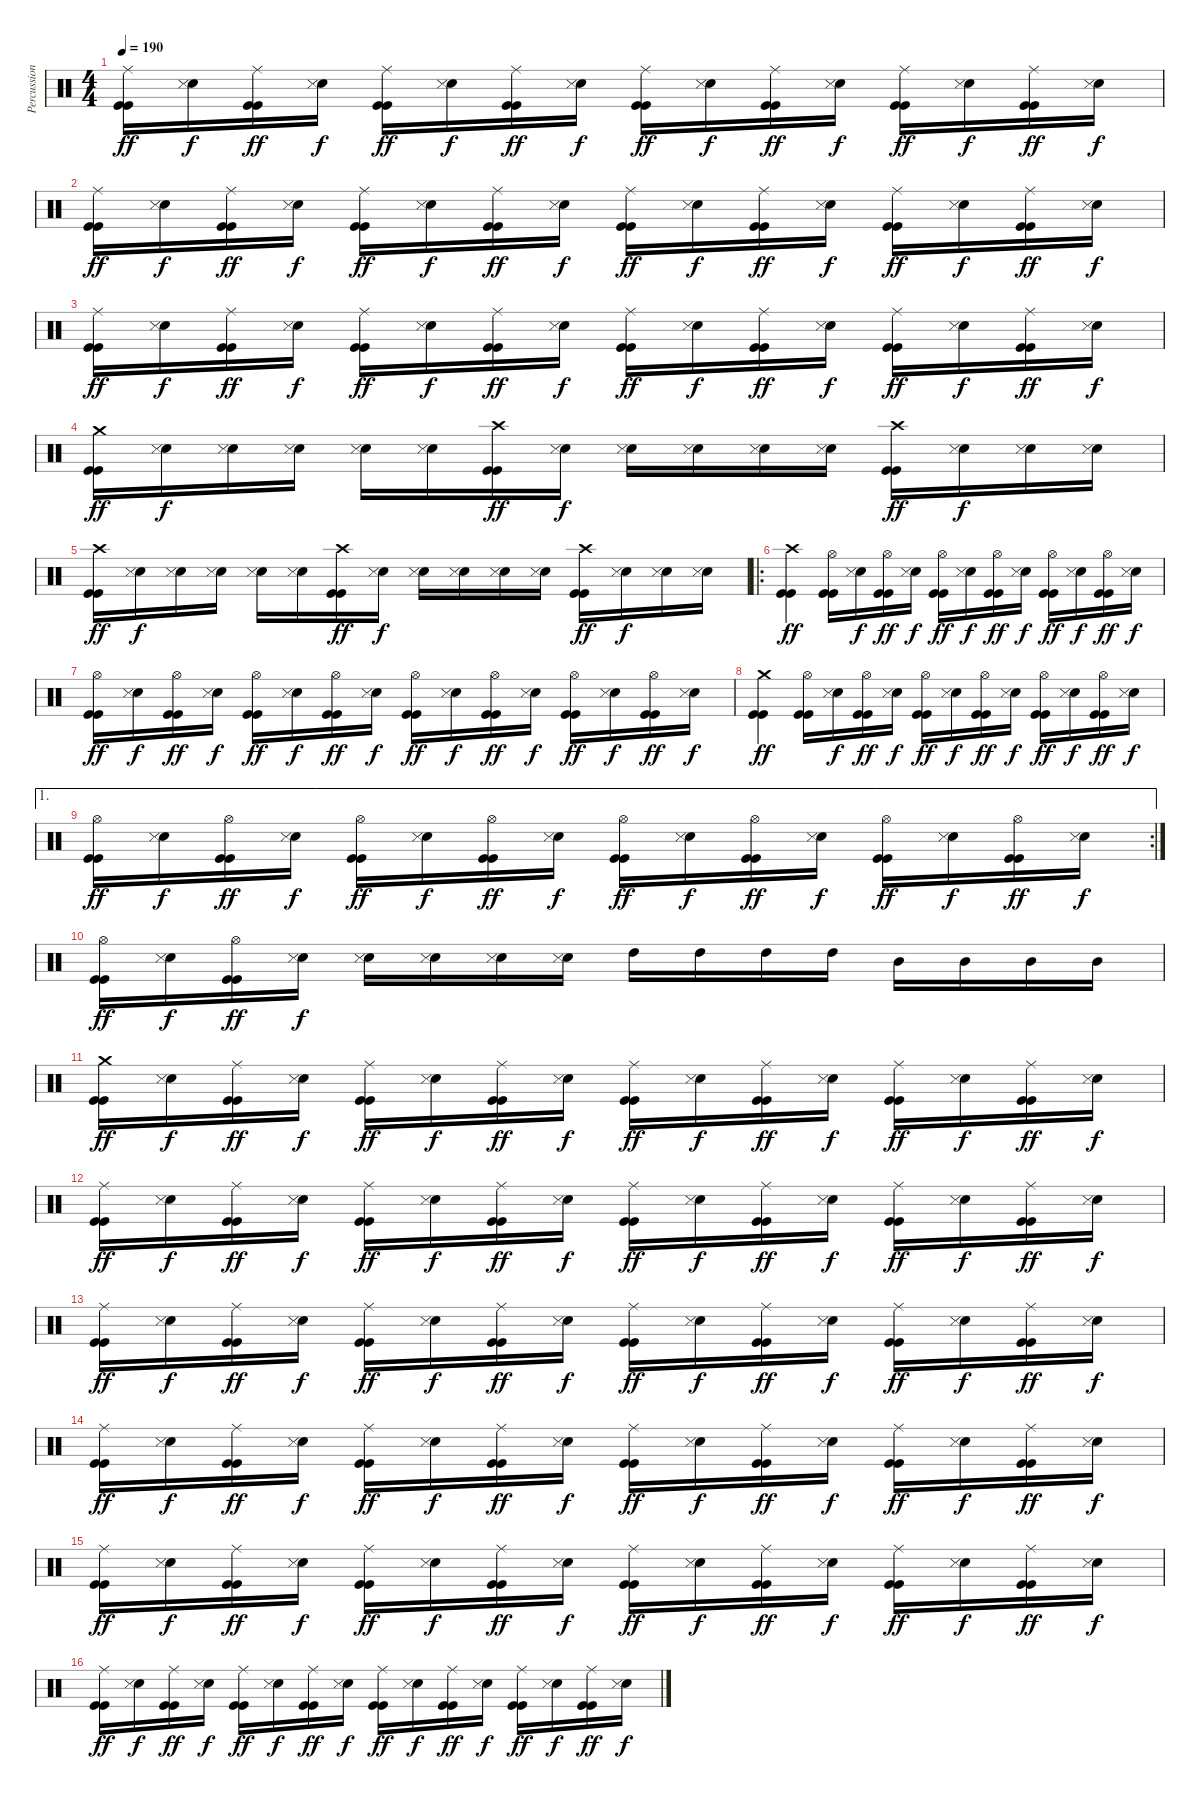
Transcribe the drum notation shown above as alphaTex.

\track ("Percussion" "Percussion") {instrument percussion}
\staff {score}
\articulation defaults
\ts (4 4)
\tempo 190
\clef neutral
\ks c
("Ride (middle)" "Kick (hit)" "Kick (hit)").16{dy ff} ("Electric Snare (hit)" "Snare (side stick) 3").16{dy f} ("Ride (middle)" "Kick (hit)" "Kick (hit)").16{dy ff} ("Electric Snare (hit)" "Snare (side stick) 3").16{dy f} ("Ride (middle)" "Kick (hit)" "Kick (hit)").16{dy ff} ("Electric Snare (hit)" "Snare (side stick) 3").16{dy f} ("Ride (middle)" "Kick (hit)" "Kick (hit)").16{dy ff} ("Electric Snare (hit)" "Snare (side stick) 3").16{dy f} ("Ride (middle)" "Kick (hit)" "Kick (hit)").16{dy ff} ("Electric Snare (hit)" "Snare (side stick) 3").16{dy f} ("Ride (middle)" "Kick (hit)" "Kick (hit)").16{dy ff} ("Electric Snare (hit)" "Snare (side stick) 3").16{dy f} ("Ride (middle)" "Kick (hit)" "Kick (hit)").16{dy ff} ("Electric Snare (hit)" "Snare (side stick) 3").16{dy f} ("Ride (middle)" "Kick (hit)" "Kick (hit)").16{dy ff} ("Electric Snare (hit)" "Snare (side stick) 3").16{dy f} |
("Ride (middle)" "Kick (hit)" "Kick (hit)").16{dy ff} ("Electric Snare (hit)" "Snare (side stick) 3").16{dy f} ("Ride (middle)" "Kick (hit)" "Kick (hit)").16{dy ff} ("Electric Snare (hit)" "Snare (side stick) 3").16{dy f} ("Ride (middle)" "Kick (hit)" "Kick (hit)").16{dy ff} ("Electric Snare (hit)" "Snare (side stick) 3").16{dy f} ("Ride (middle)" "Kick (hit)" "Kick (hit)").16{dy ff} ("Electric Snare (hit)" "Snare (side stick) 3").16{dy f} ("Ride (middle)" "Kick (hit)" "Kick (hit)").16{dy ff} ("Electric Snare (hit)" "Snare (side stick) 3").16{dy f} ("Ride (middle)" "Kick (hit)" "Kick (hit)").16{dy ff} ("Electric Snare (hit)" "Snare (side stick) 3").16{dy f} ("Ride (middle)" "Kick (hit)" "Kick (hit)").16{dy ff} ("Electric Snare (hit)" "Snare (side stick) 3").16{dy f} ("Ride (middle)" "Kick (hit)" "Kick (hit)").16{dy ff} ("Electric Snare (hit)" "Snare (side stick) 3").16{dy f} |
("Ride (middle)" "Kick (hit)" "Kick (hit)").16{dy ff} ("Electric Snare (hit)" "Snare (side stick) 3").16{dy f} ("Ride (middle)" "Kick (hit)" "Kick (hit)").16{dy ff} ("Electric Snare (hit)" "Snare (side stick) 3").16{dy f} ("Ride (middle)" "Kick (hit)" "Kick (hit)").16{dy ff} ("Electric Snare (hit)" "Snare (side stick) 3").16{dy f} ("Ride (middle)" "Kick (hit)" "Kick (hit)").16{dy ff} ("Electric Snare (hit)" "Snare (side stick) 3").16{dy f} ("Ride (middle)" "Kick (hit)" "Kick (hit)").16{dy ff} ("Electric Snare (hit)" "Snare (side stick) 3").16{dy f} ("Ride (middle)" "Kick (hit)" "Kick (hit)").16{dy ff} ("Electric Snare (hit)" "Snare (side stick) 3").16{dy f} ("Ride (middle)" "Kick (hit)" "Kick (hit)").16{dy ff} ("Electric Snare (hit)" "Snare (side stick) 3").16{dy f} ("Ride (middle)" "Kick (hit)" "Kick (hit)").16{dy ff} ("Electric Snare (hit)" "Snare (side stick) 3").16{dy f} |
("Crash medium (hit)" "Kick (hit)" "Kick (hit)").16{dy ff} ("Electric Snare (hit)" "Snare (side stick) 3").16{dy f} ("Electric Snare (hit)" "Snare (side stick) 3").16 ("Electric Snare (hit)" "Snare (side stick) 3").16 ("Electric Snare (hit)" "Snare (side stick) 3").16 ("Electric Snare (hit)" "Snare (side stick) 3").16 ("Crash high (hit)" "Kick (hit)" "Kick (hit)").16{dy ff} ("Electric Snare (hit)" "Snare (side stick) 3").16{dy f} ("Electric Snare (hit)" "Snare (side stick) 3").16 ("Electric Snare (hit)" "Snare (side stick) 3").16 ("Electric Snare (hit)" "Snare (side stick) 3").16 ("Electric Snare (hit)" "Snare (side stick) 3").16 ("Crash high (hit)" "Kick (hit)" "Kick (hit)").16{dy ff} ("Electric Snare (hit)" "Snare (side stick) 3").16{dy f} ("Electric Snare (hit)" "Snare (side stick) 3").16 ("Electric Snare (hit)" "Snare (side stick) 3").16 |
("Crash high (hit)" "Kick (hit)" "Kick (hit)").16{dy ff} ("Electric Snare (hit)" "Snare (side stick) 3").16{dy f} ("Electric Snare (hit)" "Snare (side stick) 3").16 ("Electric Snare (hit)" "Snare (side stick) 3").16 ("Electric Snare (hit)" "Snare (side stick) 3").16 ("Electric Snare (hit)" "Snare (side stick) 3").16 ("Crash high (hit)" "Kick (hit)" "Kick (hit)").16{dy ff} ("Electric Snare (hit)" "Snare (side stick) 3").16{dy f} ("Electric Snare (hit)" "Snare (side stick) 3").16 ("Electric Snare (hit)" "Snare (side stick) 3").16 ("Electric Snare (hit)" "Snare (side stick) 3").16 ("Electric Snare (hit)" "Snare (side stick) 3").16 ("Crash high (hit)" "Kick (hit)" "Kick (hit)").16{dy ff} ("Electric Snare (hit)" "Snare (side stick) 3").16{dy f} ("Electric Snare (hit)" "Snare (side stick) 3").16 ("Electric Snare (hit)" "Snare (side stick) 3").16 |
\ro
("Crash high (hit)" "Kick (hit)" "Kick (hit)").4{dy ff} ("Hi-Hat (open)" "Kick (hit)" "Kick (hit)").16 ("Electric Snare (hit)" "Snare (side stick) 3").16{dy f} ("Hi-Hat (open)" "Kick (hit)" "Kick (hit)").16{dy ff} ("Electric Snare (hit)" "Snare (side stick) 3").16{dy f} ("Hi-Hat (open)" "Kick (hit)" "Kick (hit)").16{dy ff} ("Electric Snare (hit)" "Snare (side stick) 3").16{dy f} ("Hi-Hat (open)" "Kick (hit)" "Kick (hit)").16{dy ff} ("Electric Snare (hit)" "Snare (side stick) 3").16{dy f} ("Hi-Hat (open)" "Kick (hit)" "Kick (hit)").16{dy ff} ("Electric Snare (hit)" "Snare (side stick) 3").16{dy f} ("Hi-Hat (open)" "Kick (hit)" "Kick (hit)").16{dy ff} ("Electric Snare (hit)" "Snare (side stick) 3").16{dy f} |
("Hi-Hat (open)" "Kick (hit)" "Kick (hit)").16{dy ff} ("Electric Snare (hit)" "Snare (side stick) 3").16{dy f} ("Hi-Hat (open)" "Kick (hit)" "Kick (hit)").16{dy ff} ("Electric Snare (hit)" "Snare (side stick) 3").16{dy f} ("Hi-Hat (open)" "Kick (hit)" "Kick (hit)").16{dy ff} ("Electric Snare (hit)" "Snare (side stick) 3").16{dy f} ("Hi-Hat (open)" "Kick (hit)" "Kick (hit)").16{dy ff} ("Electric Snare (hit)" "Snare (side stick) 3").16{dy f} ("Hi-Hat (open)" "Kick (hit)" "Kick (hit)").16{dy ff} ("Electric Snare (hit)" "Snare (side stick) 3").16{dy f} ("Hi-Hat (open)" "Kick (hit)" "Kick (hit)").16{dy ff} ("Electric Snare (hit)" "Snare (side stick) 3").16{dy f} ("Hi-Hat (open)" "Kick (hit)" "Kick (hit)").16{dy ff} ("Electric Snare (hit)" "Snare (side stick) 3").16{dy f} ("Hi-Hat (open)" "Kick (hit)" "Kick (hit)").16{dy ff} ("Electric Snare (hit)" "Snare (side stick) 3").16{dy f} |
("Crash medium (hit)" "Kick (hit)" "Kick (hit)").4{dy ff} ("Hi-Hat (open)" "Kick (hit)" "Kick (hit)").16 ("Electric Snare (hit)" "Snare (side stick) 3").16{dy f} ("Hi-Hat (open)" "Kick (hit)" "Kick (hit)").16{dy ff} ("Electric Snare (hit)" "Snare (side stick) 3").16{dy f} ("Hi-Hat (open)" "Kick (hit)" "Kick (hit)").16{dy ff} ("Electric Snare (hit)" "Snare (side stick) 3").16{dy f} ("Hi-Hat (open)" "Kick (hit)" "Kick (hit)").16{dy ff} ("Electric Snare (hit)" "Snare (side stick) 3").16{dy f} ("Hi-Hat (open)" "Kick (hit)" "Kick (hit)").16{dy ff} ("Electric Snare (hit)" "Snare (side stick) 3").16{dy f} ("Hi-Hat (open)" "Kick (hit)" "Kick (hit)").16{dy ff} ("Electric Snare (hit)" "Snare (side stick) 3").16{dy f} |
\ae 1
\rc 2
("Hi-Hat (open)" "Kick (hit)" "Kick (hit)").16{dy ff} ("Electric Snare (hit)" "Snare (side stick) 3").16{dy f} ("Hi-Hat (open)" "Kick (hit)" "Kick (hit)").16{dy ff} ("Electric Snare (hit)" "Snare (side stick) 3").16{dy f} ("Hi-Hat (open)" "Kick (hit)" "Kick (hit)").16{dy ff} ("Electric Snare (hit)" "Snare (side stick) 3").16{dy f} ("Hi-Hat (open)" "Kick (hit)" "Kick (hit)").16{dy ff} ("Electric Snare (hit)" "Snare (side stick) 3").16{dy f} ("Hi-Hat (open)" "Kick (hit)" "Kick (hit)").16{dy ff} ("Electric Snare (hit)" "Snare (side stick) 3").16{dy f} ("Hi-Hat (open)" "Kick (hit)" "Kick (hit)").16{dy ff} ("Electric Snare (hit)" "Snare (side stick) 3").16{dy f} ("Hi-Hat (open)" "Kick (hit)" "Kick (hit)").16{dy ff} ("Electric Snare (hit)" "Snare (side stick) 3").16{dy f} ("Hi-Hat (open)" "Kick (hit)" "Kick (hit)").16{dy ff} ("Electric Snare (hit)" "Snare (side stick) 3").16{dy f} |
("Hi-Hat (open)" "Kick (hit)" "Kick (hit)").16{dy ff} ("Electric Snare (hit)" "Snare (side stick) 3").16{dy f} ("Hi-Hat (open)" "Kick (hit)" "Kick (hit)").16{dy ff} ("Electric Snare (hit)" "Snare (side stick) 3").16{dy f} ("Electric Snare (hit)" "Snare (side stick) 3").16 ("Electric Snare (hit)" "Snare (side stick) 3").16 ("Electric Snare (hit)" "Snare (side stick) 3").16 ("Electric Snare (hit)" "Snare (side stick) 3").16 "High Tom (hit)".16 "High Tom (hit)".16 "High Tom (hit)".16 "High Tom (hit)".16 "Mid Tom (hit)".16 "Mid Tom (hit)".16 "Mid Tom (hit)".16 "Mid Tom (hit)".16 |
("Crash medium (hit)" "Kick (hit)" "Kick (hit)").16{dy ff} ("Electric Snare (hit)" "Snare (side stick) 3").16{dy f} ("Ride (middle)" "Kick (hit)" "Kick (hit)").16{dy ff} ("Electric Snare (hit)" "Snare (side stick) 3").16{dy f} ("Ride (middle)" "Kick (hit)" "Kick (hit)").16{dy ff} ("Electric Snare (hit)" "Snare (side stick) 3").16{dy f} ("Ride (middle)" "Kick (hit)" "Kick (hit)").16{dy ff} ("Electric Snare (hit)" "Snare (side stick) 3").16{dy f} ("Ride (middle)" "Kick (hit)" "Kick (hit)").16{dy ff} ("Electric Snare (hit)" "Snare (side stick) 3").16{dy f} ("Ride (middle)" "Kick (hit)" "Kick (hit)").16{dy ff} ("Electric Snare (hit)" "Snare (side stick) 3").16{dy f} ("Ride (middle)" "Kick (hit)" "Kick (hit)").16{dy ff} ("Electric Snare (hit)" "Snare (side stick) 3").16{dy f} ("Ride (middle)" "Kick (hit)" "Kick (hit)").16{dy ff} ("Electric Snare (hit)" "Snare (side stick) 3").16{dy f} |
("Ride (middle)" "Kick (hit)" "Kick (hit)").16{dy ff} ("Electric Snare (hit)" "Snare (side stick) 3").16{dy f} ("Ride (middle)" "Kick (hit)" "Kick (hit)").16{dy ff} ("Electric Snare (hit)" "Snare (side stick) 3").16{dy f} ("Ride (middle)" "Kick (hit)" "Kick (hit)").16{dy ff} ("Electric Snare (hit)" "Snare (side stick) 3").16{dy f} ("Ride (middle)" "Kick (hit)" "Kick (hit)").16{dy ff} ("Electric Snare (hit)" "Snare (side stick) 3").16{dy f} ("Ride (middle)" "Kick (hit)" "Kick (hit)").16{dy ff} ("Electric Snare (hit)" "Snare (side stick) 3").16{dy f} ("Ride (middle)" "Kick (hit)" "Kick (hit)").16{dy ff} ("Electric Snare (hit)" "Snare (side stick) 3").16{dy f} ("Ride (middle)" "Kick (hit)" "Kick (hit)").16{dy ff} ("Electric Snare (hit)" "Snare (side stick) 3").16{dy f} ("Ride (middle)" "Kick (hit)" "Kick (hit)").16{dy ff} ("Electric Snare (hit)" "Snare (side stick) 3").16{dy f} |
("Ride (middle)" "Kick (hit)" "Kick (hit)").16{dy ff} ("Electric Snare (hit)" "Snare (side stick) 3").16{dy f} ("Ride (middle)" "Kick (hit)" "Kick (hit)").16{dy ff} ("Electric Snare (hit)" "Snare (side stick) 3").16{dy f} ("Ride (middle)" "Kick (hit)" "Kick (hit)").16{dy ff} ("Electric Snare (hit)" "Snare (side stick) 3").16{dy f} ("Ride (middle)" "Kick (hit)" "Kick (hit)").16{dy ff} ("Electric Snare (hit)" "Snare (side stick) 3").16{dy f} ("Ride (middle)" "Kick (hit)" "Kick (hit)").16{dy ff} ("Electric Snare (hit)" "Snare (side stick) 3").16{dy f} ("Ride (middle)" "Kick (hit)" "Kick (hit)").16{dy ff} ("Electric Snare (hit)" "Snare (side stick) 3").16{dy f} ("Ride (middle)" "Kick (hit)" "Kick (hit)").16{dy ff} ("Electric Snare (hit)" "Snare (side stick) 3").16{dy f} ("Ride (middle)" "Kick (hit)" "Kick (hit)").16{dy ff} ("Electric Snare (hit)" "Snare (side stick) 3").16{dy f} |
("Ride (middle)" "Kick (hit)" "Kick (hit)").16{dy ff} ("Electric Snare (hit)" "Snare (side stick) 3").16{dy f} ("Ride (middle)" "Kick (hit)" "Kick (hit)").16{dy ff} ("Electric Snare (hit)" "Snare (side stick) 3").16{dy f} ("Ride (middle)" "Kick (hit)" "Kick (hit)").16{dy ff} ("Electric Snare (hit)" "Snare (side stick) 3").16{dy f} ("Ride (middle)" "Kick (hit)" "Kick (hit)").16{dy ff} ("Electric Snare (hit)" "Snare (side stick) 3").16{dy f} ("Ride (middle)" "Kick (hit)" "Kick (hit)").16{dy ff} ("Electric Snare (hit)" "Snare (side stick) 3").16{dy f} ("Ride (middle)" "Kick (hit)" "Kick (hit)").16{dy ff} ("Electric Snare (hit)" "Snare (side stick) 3").16{dy f} ("Ride (middle)" "Kick (hit)" "Kick (hit)").16{dy ff} ("Electric Snare (hit)" "Snare (side stick) 3").16{dy f} ("Ride (middle)" "Kick (hit)" "Kick (hit)").16{dy ff} ("Electric Snare (hit)" "Snare (side stick) 3").16{dy f} |
("Ride (middle)" "Kick (hit)" "Kick (hit)").16{dy ff} ("Electric Snare (hit)" "Snare (side stick) 3").16{dy f} ("Ride (middle)" "Kick (hit)" "Kick (hit)").16{dy ff} ("Electric Snare (hit)" "Snare (side stick) 3").16{dy f} ("Ride (middle)" "Kick (hit)" "Kick (hit)").16{dy ff} ("Electric Snare (hit)" "Snare (side stick) 3").16{dy f} ("Ride (middle)" "Kick (hit)" "Kick (hit)").16{dy ff} ("Electric Snare (hit)" "Snare (side stick) 3").16{dy f} ("Ride (middle)" "Kick (hit)" "Kick (hit)").16{dy ff} ("Electric Snare (hit)" "Snare (side stick) 3").16{dy f} ("Ride (middle)" "Kick (hit)" "Kick (hit)").16{dy ff} ("Electric Snare (hit)" "Snare (side stick) 3").16{dy f} ("Ride (middle)" "Kick (hit)" "Kick (hit)").16{dy ff} ("Electric Snare (hit)" "Snare (side stick) 3").16{dy f} ("Ride (middle)" "Kick (hit)" "Kick (hit)").16{dy ff} ("Electric Snare (hit)" "Snare (side stick) 3").16{dy f} |
("Ride (middle)" "Kick (hit)" "Kick (hit)").16{dy ff} ("Electric Snare (hit)" "Snare (side stick) 3").16{dy f} ("Ride (middle)" "Kick (hit)" "Kick (hit)").16{dy ff} ("Electric Snare (hit)" "Snare (side stick) 3").16{dy f} ("Ride (middle)" "Kick (hit)" "Kick (hit)").16{dy ff} ("Electric Snare (hit)" "Snare (side stick) 3").16{dy f} ("Ride (middle)" "Kick (hit)" "Kick (hit)").16{dy ff} ("Electric Snare (hit)" "Snare (side stick) 3").16{dy f} ("Ride (middle)" "Kick (hit)" "Kick (hit)").16{dy ff} ("Electric Snare (hit)" "Snare (side stick) 3").16{dy f} ("Ride (middle)" "Kick (hit)" "Kick (hit)").16{dy ff} ("Electric Snare (hit)" "Snare (side stick) 3").16{dy f} ("Ride (middle)" "Kick (hit)" "Kick (hit)").16{dy ff} ("Electric Snare (hit)" "Snare (side stick) 3").16{dy f} ("Ride (middle)" "Kick (hit)" "Kick (hit)").16{dy ff} ("Electric Snare (hit)" "Snare (side stick) 3").16{dy f}
